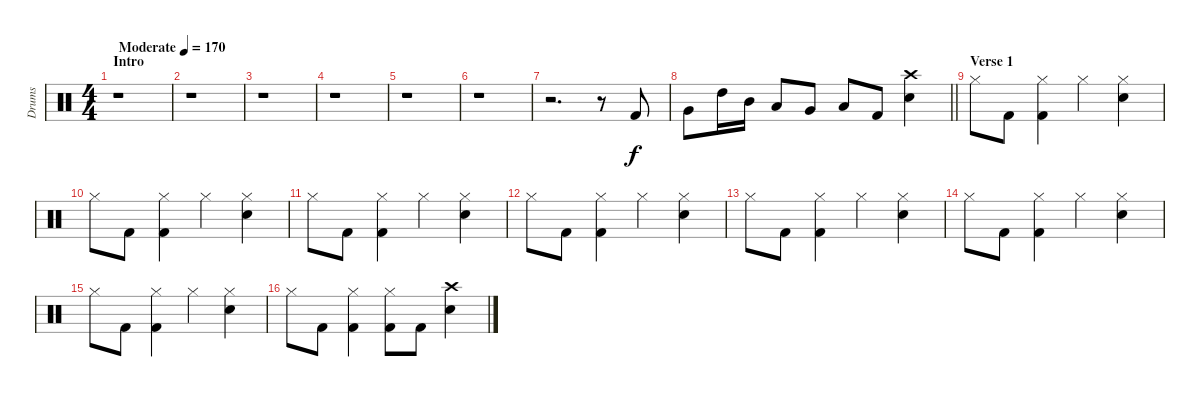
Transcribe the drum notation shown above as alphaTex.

\track ("Drums" "Drums") {instrument percussion}
\staff {score}
\articulation defaults
\ts (4 4)
\section ("" "Intro")
\tempo (170 "Moderate")
\clef neutral
\ks c
r.1{dy f} |
r.1 |
r.1 |
r.1 |
r.1 |
r.1 |
r.2{d} r.8 "Kick (hit) 2".8 |
\barLineRight lightlight "Very Low Tom (hit)".8 "High Tom (hit)".16 "Mid Tom (hit)".16 "Low Tom (hit)".8 "Very Low Tom (hit)".8 "Low Floor Tom (hit)".8 "Kick (hit) 2".8
("Crash high (hit)" "Electric Snare (hit)").4 |
\section ("" "Verse 1")
"Hi-Hat (closed)".8 "Kick (hit) 2".8 ("Hi-Hat (closed)" "Kick (hit) 2").4 "Hi-Hat (closed)".4 ("Hi-Hat (closed)" "Electric Snare (hit)").4 |
"Hi-Hat (closed)".8 "Kick (hit) 2".8 ("Hi-Hat (closed)" "Kick (hit) 2").4 "Hi-Hat (closed)".4 ("Hi-Hat (closed)" "Electric Snare (hit)").4 |
"Hi-Hat (closed)".8 "Kick (hit) 2".8 ("Hi-Hat (closed)" "Kick (hit) 2").4 "Hi-Hat (closed)".4 ("Hi-Hat (closed)" "Electric Snare (hit)").4 |
"Hi-Hat (closed)".8 "Kick (hit) 2".8 ("Hi-Hat (closed)" "Kick (hit) 2").4 "Hi-Hat (closed)".4 ("Hi-Hat (closed)" "Electric Snare (hit)").4 |
"Hi-Hat (closed)".8 "Kick (hit) 2".8 ("Hi-Hat (closed)" "Kick (hit) 2").4 "Hi-Hat (closed)".4 ("Hi-Hat (closed)" "Electric Snare (hit)").4 |
"Hi-Hat (closed)".8 "Kick (hit) 2".8 ("Hi-Hat (closed)" "Kick (hit) 2").4 "Hi-Hat (closed)".4 ("Hi-Hat (closed)" "Electric Snare (hit)").4 |
"Hi-Hat (closed)".8 "Kick (hit) 2".8 ("Hi-Hat (closed)" "Kick (hit) 2").4 "Hi-Hat (closed)".4 ("Hi-Hat (closed)" "Electric Snare (hit)").4 |
"Hi-Hat (closed)".8 "Kick (hit) 2".8 ("Hi-Hat (closed)" "Kick (hit) 2").4 ("Hi-Hat (closed)" "Kick (hit) 2").8 "Kick (hit) 2".8 ("Crash high (hit)" "Electric Snare (hit)").4
